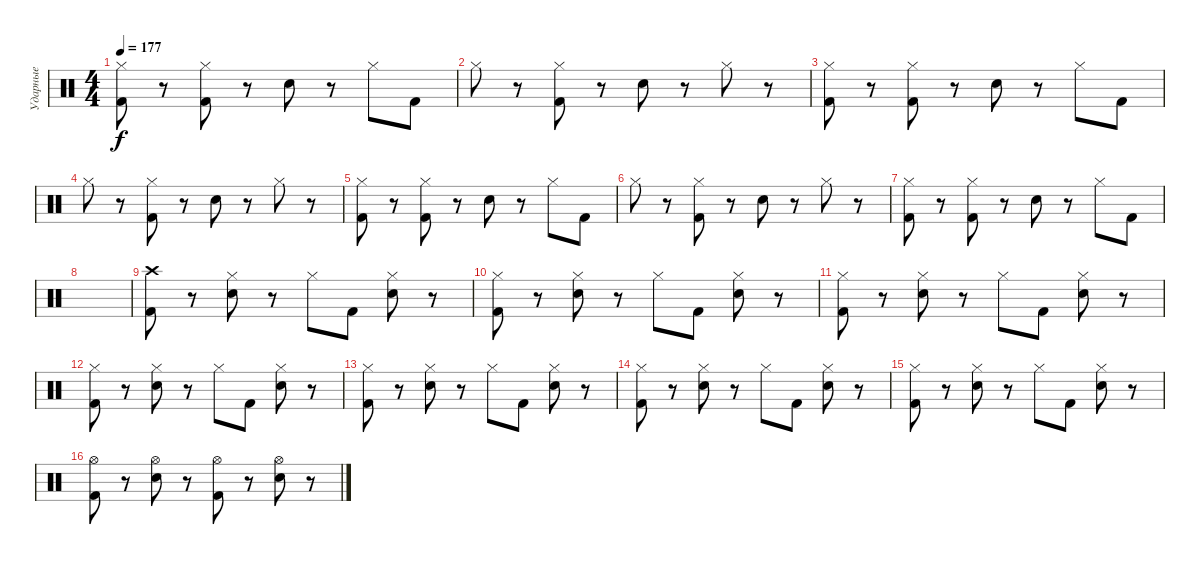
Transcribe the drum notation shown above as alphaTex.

\track ("Ударные" "Ударные") {instrument percussion}
\staff {score}
\articulation defaults
\ts (4 4)
\tempo 177
\clef neutral
\ks c
("Kick (hit) 2" "Hi-Hat (closed)").8{dy f} r.8 ("Kick (hit) 2" "Hi-Hat (closed)").8 r.8 "Hand Clap (hit)".8 r.8 "Hi-Hat (closed)".8 "Kick (hit) 2".8 |
"Hi-Hat (closed)".8 r.8 ("Kick (hit) 2" "Hi-Hat (closed)").8 r.8 "Hand Clap (hit)".8 r.8 "Hi-Hat (closed)".8 r.8 |
("Kick (hit) 2" "Hi-Hat (closed)").8 r.8 ("Kick (hit) 2" "Hi-Hat (closed)").8 r.8 "Hand Clap (hit)".8 r.8 "Hi-Hat (closed)".8 "Kick (hit) 2".8 |
"Hi-Hat (closed)".8 r.8 ("Kick (hit) 2" "Hi-Hat (closed)").8 r.8 "Hand Clap (hit)".8 r.8 "Hi-Hat (closed)".8 r.8 |
("Kick (hit) 2" "Hi-Hat (closed)").8 r.8 ("Kick (hit) 2" "Hi-Hat (closed)").8 r.8 "Hand Clap (hit)".8 r.8 "Hi-Hat (closed)".8 "Kick (hit) 2".8 |
"Hi-Hat (closed)".8 r.8 ("Kick (hit) 2" "Hi-Hat (closed)").8 r.8 "Hand Clap (hit)".8 r.8 "Hi-Hat (closed)".8 r.8 |
("Kick (hit) 2" "Hi-Hat (closed)").8 r.8 ("Kick (hit) 2" "Hi-Hat (closed)").8 r.8 "Hand Clap (hit)".8 r.8 "Hi-Hat (closed)".8 "Kick (hit) 2".8 |
|
("Kick (hit) 2" "Crash high (hit)").8 r.8 ("Electric Snare (hit)" "Hi-Hat (closed)").8 r.8 "Hi-Hat (closed)".8 "Kick (hit) 2".8 ("Electric Snare (hit)" "Hi-Hat (closed)").8 r.8 |
("Kick (hit) 2" "Hi-Hat (closed)").8 r.8 ("Electric Snare (hit)" "Hi-Hat (closed)").8 r.8 "Hi-Hat (closed)".8 "Kick (hit) 2".8 ("Electric Snare (hit)" "Hi-Hat (closed)").8 r.8 |
("Kick (hit) 2" "Hi-Hat (closed)").8 r.8 ("Electric Snare (hit)" "Hi-Hat (closed)").8 r.8 "Hi-Hat (closed)".8 "Kick (hit) 2".8 ("Electric Snare (hit)" "Hi-Hat (closed)").8 r.8 |
("Kick (hit) 2" "Hi-Hat (closed)").8 r.8 ("Electric Snare (hit)" "Hi-Hat (closed)").8 r.8 "Hi-Hat (closed)".8 "Kick (hit) 2".8 ("Electric Snare (hit)" "Hi-Hat (closed)").8 r.8 |
("Kick (hit) 2" "Hi-Hat (closed)").8 r.8 ("Electric Snare (hit)" "Hi-Hat (closed)").8 r.8 "Hi-Hat (closed)".8 "Kick (hit) 2".8 ("Electric Snare (hit)" "Hi-Hat (closed)").8 r.8 |
("Kick (hit) 2" "Hi-Hat (closed)").8 r.8 ("Electric Snare (hit)" "Hi-Hat (closed)").8 r.8 "Hi-Hat (closed)".8 "Kick (hit) 2".8 ("Electric Snare (hit)" "Hi-Hat (closed)").8 r.8 |
("Kick (hit) 2" "Hi-Hat (closed)").8 r.8 ("Electric Snare (hit)" "Hi-Hat (closed)").8 r.8 "Hi-Hat (closed)".8 "Kick (hit) 2".8 ("Electric Snare (hit)" "Hi-Hat (closed)").8 r.8 |
("Kick (hit) 2" "Hi-Hat (open)").8 r.8 ("Electric Snare (hit)" "Hi-Hat (open)").8 r.8 ("Kick (hit) 2" "Hi-Hat (open)").8 r.8 ("Electric Snare (hit)" "Hi-Hat (open)").8 r.8
